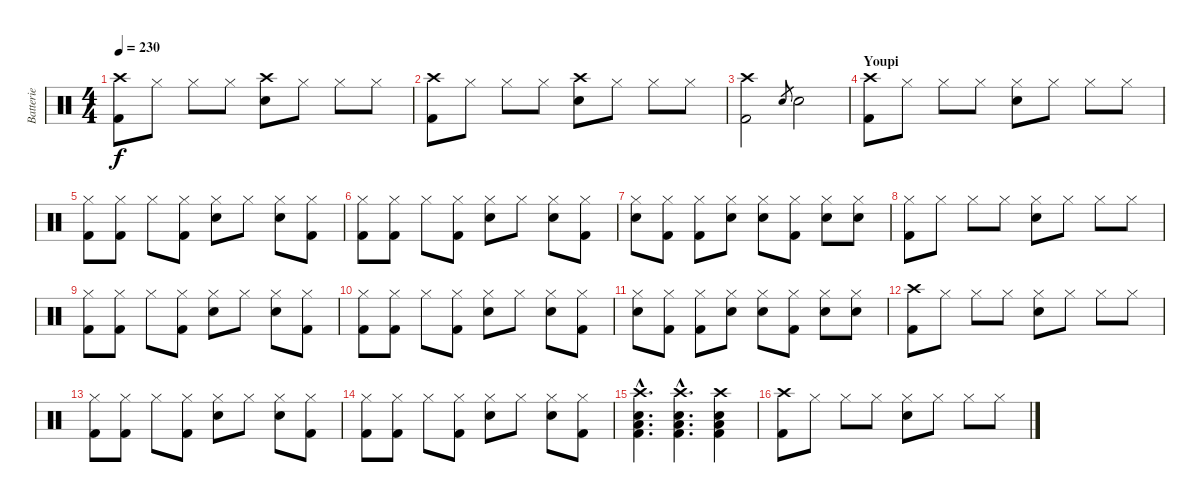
\track ("Batterie" "Batterie") {instrument percussion}
\staff {score}
\articulation defaults
\ts (4 4)
\section ("" "")
\tempo 230
\clef neutral
\ks c
("Crash high (hit)" "Kick (hit) 2").8{dy f} "Hi-Hat (closed)".8 "Hi-Hat (closed)".8 "Hi-Hat (closed)".8 ("Crash high (hit)" "Snare (hit) 2").8 "Hi-Hat (closed)".8 "Hi-Hat (closed)".8 "Hi-Hat (closed)".8 |
("Crash high (hit)" "Kick (hit) 2").8 "Hi-Hat (closed)".8 "Hi-Hat (closed)".8 "Hi-Hat (closed)".8 ("Crash high (hit)" "Snare (hit) 2").8 "Hi-Hat (closed)".8 "Hi-Hat (closed)".8 "Hi-Hat (closed)".8 |
("Crash high (hit)" "Kick (hit) 2").2 "Snare (hit) 2".8{gr} "Snare (hit) 2".2 |
\section ("" "Youpi")
("Crash high (hit)" "Kick (hit) 2").8 "Hi-Hat (closed)".8 "Hi-Hat (closed)".8 "Hi-Hat (closed)".8 ("Hi-Hat (closed)" "Snare (hit) 2").8 "Hi-Hat (closed)".8 "Hi-Hat (closed)".8 "Hi-Hat (closed)".8 |
("Hi-Hat (closed)" "Kick (hit) 2").8 ("Hi-Hat (closed)" "Kick (hit) 2").8 "Hi-Hat (closed)".8 ("Hi-Hat (closed)" "Kick (hit) 2").8 ("Hi-Hat (closed)" "Snare (hit) 2").8 "Hi-Hat (closed)".8 ("Hi-Hat (closed)" "Snare (hit) 2").8 ("Hi-Hat (closed)" "Kick (hit) 2").8 |
("Hi-Hat (closed)" "Kick (hit) 2").8 ("Hi-Hat (closed)" "Kick (hit) 2").8 "Hi-Hat (closed)".8 ("Hi-Hat (closed)" "Kick (hit) 2").8 ("Hi-Hat (closed)" "Snare (hit) 2").8 "Hi-Hat (closed)".8 ("Hi-Hat (closed)" "Snare (hit) 2").8 ("Hi-Hat (closed)" "Kick (hit) 2").8 |
("Hi-Hat (closed)" "Snare (hit) 2").8 ("Hi-Hat (closed)" "Kick (hit) 2").8 ("Hi-Hat (closed)" "Kick (hit) 2").8 ("Hi-Hat (closed)" "Snare (hit) 2").8 ("Hi-Hat (closed)" "Snare (hit) 2").8 ("Hi-Hat (closed)" "Kick (hit) 2").8 ("Hi-Hat (closed)" "Snare (hit) 2").8 ("Hi-Hat (closed)" "Snare (hit) 2").8 |
("Hi-Hat (closed)" "Kick (hit) 2").8 "Hi-Hat (closed)".8 "Hi-Hat (closed)".8 "Hi-Hat (closed)".8 ("Hi-Hat (closed)" "Snare (hit) 2").8 "Hi-Hat (closed)".8 "Hi-Hat (closed)".8 "Hi-Hat (closed)".8 |
("Hi-Hat (closed)" "Kick (hit) 2").8 ("Hi-Hat (closed)" "Kick (hit) 2").8 "Hi-Hat (closed)".8 ("Hi-Hat (closed)" "Kick (hit) 2").8 ("Hi-Hat (closed)" "Snare (hit) 2").8 "Hi-Hat (closed)".8 ("Hi-Hat (closed)" "Snare (hit) 2").8 ("Hi-Hat (closed)" "Kick (hit) 2").8 |
("Hi-Hat (closed)" "Kick (hit) 2").8 ("Hi-Hat (closed)" "Kick (hit) 2").8 "Hi-Hat (closed)".8 ("Hi-Hat (closed)" "Kick (hit) 2").8 ("Hi-Hat (closed)" "Snare (hit) 2").8 "Hi-Hat (closed)".8 ("Hi-Hat (closed)" "Snare (hit) 2").8 ("Hi-Hat (closed)" "Kick (hit) 2").8 |
("Hi-Hat (closed)" "Snare (hit) 2").8 ("Hi-Hat (closed)" "Kick (hit) 2").8 ("Hi-Hat (closed)" "Kick (hit) 2").8 ("Hi-Hat (closed)" "Snare (hit) 2").8 ("Hi-Hat (closed)" "Snare (hit) 2").8 ("Hi-Hat (closed)" "Kick (hit) 2").8 ("Hi-Hat (closed)" "Snare (hit) 2").8 ("Hi-Hat (closed)" "Snare (hit) 2").8 |
("Crash high (hit)" "Kick (hit) 2").8 "Hi-Hat (closed)".8 "Hi-Hat (closed)".8 "Hi-Hat (closed)".8 ("Hi-Hat (closed)" "Snare (hit) 2").8 "Hi-Hat (closed)".8 "Hi-Hat (closed)".8 "Hi-Hat (closed)".8 |
("Hi-Hat (closed)" "Kick (hit) 2").8 ("Hi-Hat (closed)" "Kick (hit) 2").8 "Hi-Hat (closed)".8 ("Hi-Hat (closed)" "Kick (hit) 2").8 ("Hi-Hat (closed)" "Snare (hit) 2").8 "Hi-Hat (closed)".8 ("Hi-Hat (closed)" "Snare (hit) 2").8 ("Hi-Hat (closed)" "Kick (hit) 2").8 |
("Hi-Hat (closed)" "Kick (hit) 2").8 ("Hi-Hat (closed)" "Kick (hit) 2").8 "Hi-Hat (closed)".8 ("Hi-Hat (closed)" "Kick (hit) 2").8 ("Hi-Hat (closed)" "Snare (hit) 2").8 "Hi-Hat (closed)".8 ("Hi-Hat (closed)" "Snare (hit) 2").8 ("Hi-Hat (closed)" "Kick (hit) 2").8 |
("Crash high (hit)"{hac} "Snare (hit) 2"{hac} "Low Floor Tom (hit)"{hac} "Kick (hit) 2"{hac}).4{d} ("Crash high (hit)"{hac} "Snare (hit) 2"{hac} "Low Floor Tom (hit)"{hac} "Kick (hit) 2"{hac}).4{d} ("Crash high (hit)" "Snare (hit) 2" "Low Floor Tom (hit)" "Kick (hit) 2").4 |
("Crash high (hit)" "Kick (hit) 2").8 "Hi-Hat (closed)".8 "Hi-Hat (closed)".8 "Hi-Hat (closed)".8 ("Hi-Hat (closed)" "Snare (hit) 2").8 "Hi-Hat (closed)".8 "Hi-Hat (closed)".8 "Hi-Hat (closed)".8
